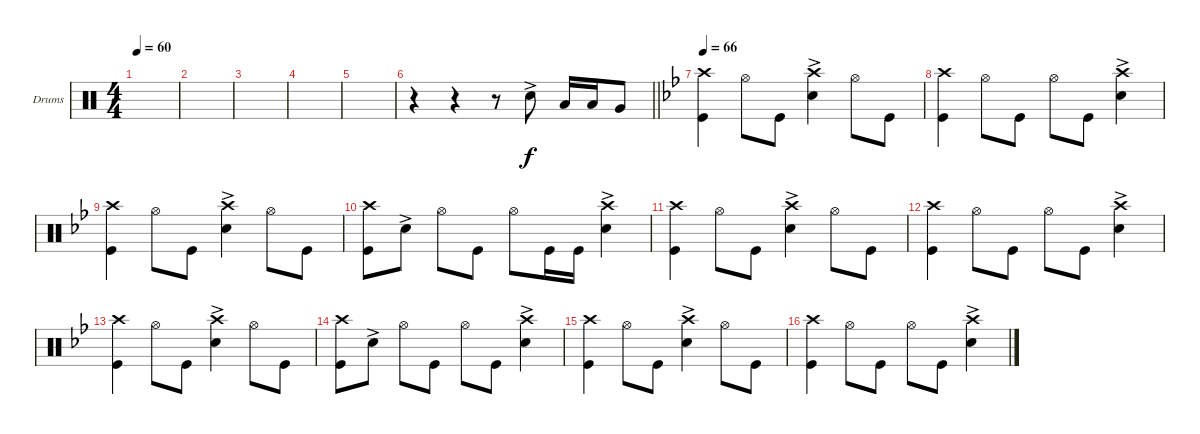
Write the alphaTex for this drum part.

\bracketExtendMode groupsimilarinstruments
\firstSystemTrackNameOrientation horizontal
\otherSystemsTrackNameOrientation horizontal
\track ("Drumkit" "Drums") {instrument percussion}
\staff {score}
\articulation defaults
\ts (4 4)
\tempo 60
\clef neutral
\ks c
|
|
|
|
|
\barLineRight lightlight
r.4 r.4 r.8 "Snare (hit) 2"{ac}.8{dy f} "Low Tom (hit)".16 "Low Tom (hit)".16 "Very Low Tom (hit)".8 |
\tempo 66
\ks gminor
("Crash high (hit)" "Kick (hit)").4 "Hi-Hat (open)".8 "Kick (hit)".8 ("Crash high (hit)" "Snare (hit) 2"{ac}).4 "Hi-Hat (open)".8 "Kick (hit)".8 |
("Kick (hit)" "Crash high (hit)").4 "Hi-Hat (open)".8 "Kick (hit)".8 "Hi-Hat (open)".8 "Kick (hit)".8 ("Snare (hit) 2"{ac} "Crash high (hit)").4 |
("Crash high (hit)" "Kick (hit)").4 "Hi-Hat (open)".8 "Kick (hit)".8 ("Crash high (hit)" "Snare (hit) 2"{ac}).4 "Hi-Hat (open)".8 "Kick (hit)".8 |
("Kick (hit)" "Crash high (hit)").8 "Snare (hit) 2"{ac}.8 "Hi-Hat (open)".8 "Kick (hit)".8 "Hi-Hat (open)".8 "Kick (hit)".16 "Kick (hit)".16 ("Snare (hit) 2"{ac} "Crash high (hit)").4 |
("Crash high (hit)" "Kick (hit)").4 "Hi-Hat (open)".8 "Kick (hit)".8 ("Crash high (hit)" "Snare (hit) 2"{ac}).4 "Hi-Hat (open)".8 "Kick (hit)".8 |
("Kick (hit)" "Crash high (hit)").4 "Hi-Hat (open)".8 "Kick (hit)".8 "Hi-Hat (open)".8 "Kick (hit)".8 ("Snare (hit) 2"{ac} "Crash high (hit)").4 |
("Crash high (hit)" "Kick (hit)").4 "Hi-Hat (open)".8 "Kick (hit)".8 ("Crash high (hit)" "Snare (hit) 2"{ac}).4 "Hi-Hat (open)".8 "Kick (hit)".8 |
("Kick (hit)" "Crash high (hit)").8 "Snare (hit) 2"{ac}.8 "Hi-Hat (open)".8 "Kick (hit)".8 "Hi-Hat (open)".8 "Kick (hit)".8 ("Snare (hit) 2"{ac} "Crash high (hit)").4 |
("Crash high (hit)" "Kick (hit)").4 "Hi-Hat (open)".8 "Kick (hit)".8 ("Crash high (hit)" "Snare (hit) 2"{ac}).4 "Hi-Hat (open)".8 "Kick (hit)".8 |
("Kick (hit)" "Crash high (hit)").4 "Hi-Hat (open)".8 "Kick (hit)".8 "Hi-Hat (open)".8 "Kick (hit)".8 ("Snare (hit) 2"{ac} "Crash high (hit)").4
